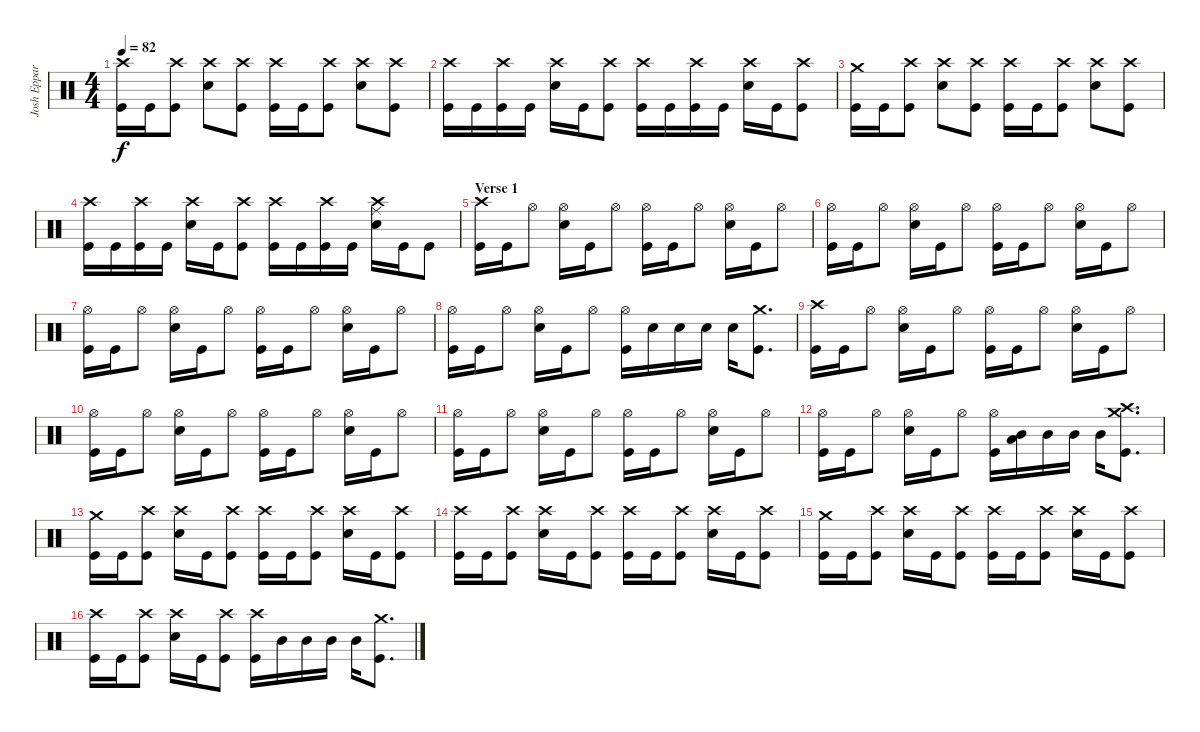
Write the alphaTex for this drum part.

\track ("Josh Eppard" "Josh Eppar") {instrument percussion}
\staff {score}
\articulation defaults
\ts (4 4)
\tempo 82
\clef neutral
\ks c
("Crash high (hit)" "Kick (hit)").16{dy f} "Kick (hit)".16 ("Crash high (hit)" "Kick (hit)").8 ("Crash high (hit)" "Snare (hit) 2").8 ("Crash high (hit)" "Kick (hit)").8 ("Crash high (hit)" "Kick (hit)").16 "Kick (hit)".16 ("Crash high (hit)" "Kick (hit)").8 ("Crash high (hit)" "Snare (hit) 2").8 ("Crash high (hit)" "Kick (hit)").8 |
("Crash high (hit)" "Kick (hit)").16 "Kick (hit)".16 ("Crash high (hit)" "Kick (hit)").16 "Kick (hit)".16 ("Crash high (hit)" "Snare (hit) 2").16 "Kick (hit)".16 ("Crash high (hit)" "Kick (hit)").8 ("Crash high (hit)" "Kick (hit)").16 "Kick (hit)".16 ("Crash high (hit)" "Kick (hit)").16 "Kick (hit)".16 ("Crash high (hit)" "Snare (hit) 2").16 "Kick (hit)".16 ("Crash high (hit)" "Kick (hit)").8 |
("Kick (hit)" "Crash medium (hit)").16 "Kick (hit)".16 ("Crash high (hit)" "Kick (hit)").8 ("Crash high (hit)" "Snare (hit) 2").8 ("Crash high (hit)" "Kick (hit)").8 ("Crash high (hit)" "Kick (hit)").16 "Kick (hit)".16 ("Crash high (hit)" "Kick (hit)").8 ("Crash high (hit)" "Snare (hit) 2").8 ("Crash high (hit)" "Kick (hit)").8 |
("Crash high (hit)" "Kick (hit)").16 "Kick (hit)".16 ("Crash high (hit)" "Kick (hit)").16 "Kick (hit)".16 ("Crash high (hit)" "Snare (hit) 2").16 "Kick (hit)".16 ("Crash high (hit)" "Kick (hit)").8 ("Crash high (hit)" "Kick (hit)").16 "Kick (hit)".16 ("Crash high (hit)" "Kick (hit)").16 "Kick (hit)".16 ("Crash high (hit)" "Snare (hit) 2" "Ride (middle)").16 "Kick (hit)".16 "Kick (hit)".8 |
\section ("" "Verse 1")
("Crash high (hit)" "Kick (hit)").16 "Kick (hit)".16 "Hi-Hat (open)".8 ("Hi-Hat (open)" "Snare (hit) 2").16 "Kick (hit)".16 "Hi-Hat (open)".8 ("Hi-Hat (open)" "Kick (hit)").16 "Kick (hit)".16 "Hi-Hat (open)".8 ("Hi-Hat (open)" "Snare (hit) 2").16 "Kick (hit)".16 "Hi-Hat (open)".8 |
("Kick (hit)" "Hi-Hat (open)").16 "Kick (hit)".16 "Hi-Hat (open)".8 ("Hi-Hat (open)" "Snare (hit) 2").16 "Kick (hit)".16 "Hi-Hat (open)".8 ("Hi-Hat (open)" "Kick (hit)").16 "Kick (hit)".16 "Hi-Hat (open)".8 ("Hi-Hat (open)" "Snare (hit) 2").16 "Kick (hit)".16 "Hi-Hat (open)".8 |
("Kick (hit)" "Hi-Hat (open)").16 "Kick (hit)".16 "Hi-Hat (open)".8 ("Hi-Hat (open)" "Snare (hit) 2").16 "Kick (hit)".16 "Hi-Hat (open)".8 ("Hi-Hat (open)" "Kick (hit)").16 "Kick (hit)".16 "Hi-Hat (open)".8 ("Hi-Hat (open)" "Snare (hit) 2").16 "Kick (hit)".16 "Hi-Hat (open)".8 |
("Kick (hit)" "Hi-Hat (open)").16 "Kick (hit)".16 "Hi-Hat (open)".8 ("Hi-Hat (open)" "Snare (hit) 2").16 "Kick (hit)".16 "Hi-Hat (open)".8 ("Hi-Hat (open)" "Kick (hit)").16 "Snare (hit) 2".16 "Snare (hit) 2".16 "Snare (hit) 2".16 "Snare (hit) 2".16 ("Kick (hit)" "Crash medium (hit)").8{d} |
("Crash high (hit)" "Kick (hit)").16 "Kick (hit)".16 "Hi-Hat (open)".8 ("Hi-Hat (open)" "Snare (hit) 2").16 "Kick (hit)".16 "Hi-Hat (open)".8 ("Hi-Hat (open)" "Kick (hit)").16 "Kick (hit)".16 "Hi-Hat (open)".8 ("Hi-Hat (open)" "Snare (hit) 2").16 "Kick (hit)".16 "Hi-Hat (open)".8 |
("Kick (hit)" "Hi-Hat (open)").16 "Kick (hit)".16 "Hi-Hat (open)".8 ("Hi-Hat (open)" "Snare (hit) 2").16 "Kick (hit)".16 "Hi-Hat (open)".8 ("Hi-Hat (open)" "Kick (hit)").16 "Kick (hit)".16 "Hi-Hat (open)".8 ("Hi-Hat (open)" "Snare (hit) 2").16 "Kick (hit)".16 "Hi-Hat (open)".8 |
("Kick (hit)" "Hi-Hat (open)").16 "Kick (hit)".16 "Hi-Hat (open)".8 ("Hi-Hat (open)" "Snare (hit) 2").16 "Kick (hit)".16 "Hi-Hat (open)".8 ("Hi-Hat (open)" "Kick (hit)").16 "Kick (hit)".16 "Hi-Hat (open)".8 ("Hi-Hat (open)" "Snare (hit) 2").16 "Kick (hit)".16 "Hi-Hat (open)".8 |
("Kick (hit)" "Hi-Hat (open)").16 "Kick (hit)".16 "Hi-Hat (open)".8 ("Hi-Hat (open)" "Snare (hit) 2").16 "Kick (hit)".16 "Hi-Hat (open)".8 ("Hi-Hat (open)" "Kick (hit)").16 ("Low Tom (hit)" "Mid Tom (hit)").16 "Mid Tom (hit)".16 "Mid Tom (hit)".16 "Mid Tom (hit)".16 ("Kick (hit)" "Crash medium (hit)" "Crash high (hit)").8{d} |
("Kick (hit)" "Crash medium (hit)").16 "Kick (hit)".16 ("Crash high (hit)" "Kick (hit)").8 ("Crash high (hit)" "Snare (hit) 2").16 "Kick (hit)".16 ("Crash high (hit)" "Kick (hit)").8 ("Crash high (hit)" "Kick (hit)").16 "Kick (hit)".16 ("Crash high (hit)" "Kick (hit)").8 ("Crash high (hit)" "Snare (hit) 2").16 "Kick (hit)".16 ("Crash high (hit)" "Kick (hit)").8 |
("Kick (hit)" "Crash high (hit)").16 "Kick (hit)".16 ("Kick (hit)" "Crash high (hit)").8 ("Snare (hit) 2" "Crash high (hit)").16 "Kick (hit)".16 ("Kick (hit)" "Crash high (hit)").8 ("Kick (hit)" "Crash high (hit)").16 "Kick (hit)".16 ("Kick (hit)" "Crash high (hit)").8 ("Snare (hit) 2" "Crash high (hit)").16 "Kick (hit)".16 ("Kick (hit)" "Crash high (hit)").8 |
("Kick (hit)" "Crash medium (hit)").16 "Kick (hit)".16 ("Crash high (hit)" "Kick (hit)").8 ("Crash high (hit)" "Snare (hit) 2").16 "Kick (hit)".16 ("Crash high (hit)" "Kick (hit)").8 ("Crash high (hit)" "Kick (hit)").16 "Kick (hit)".16 ("Crash high (hit)" "Kick (hit)").8 ("Crash high (hit)" "Snare (hit) 2").16 "Kick (hit)".16 ("Crash high (hit)" "Kick (hit)").8 |
("Crash high (hit)" "Kick (hit)").16 "Kick (hit)".16 ("Crash high (hit)" "Kick (hit)").8 ("Crash high (hit)" "Snare (hit) 2").16 "Kick (hit)".16 ("Crash high (hit)" "Kick (hit)").8 ("Crash high (hit)" "Kick (hit)").16 "Mid Tom (hit)".16 "Mid Tom (hit)".16 "Mid Tom (hit)".16 "Mid Tom (hit)".16 ("Kick (hit)" "Crash medium (hit)").8{d}
